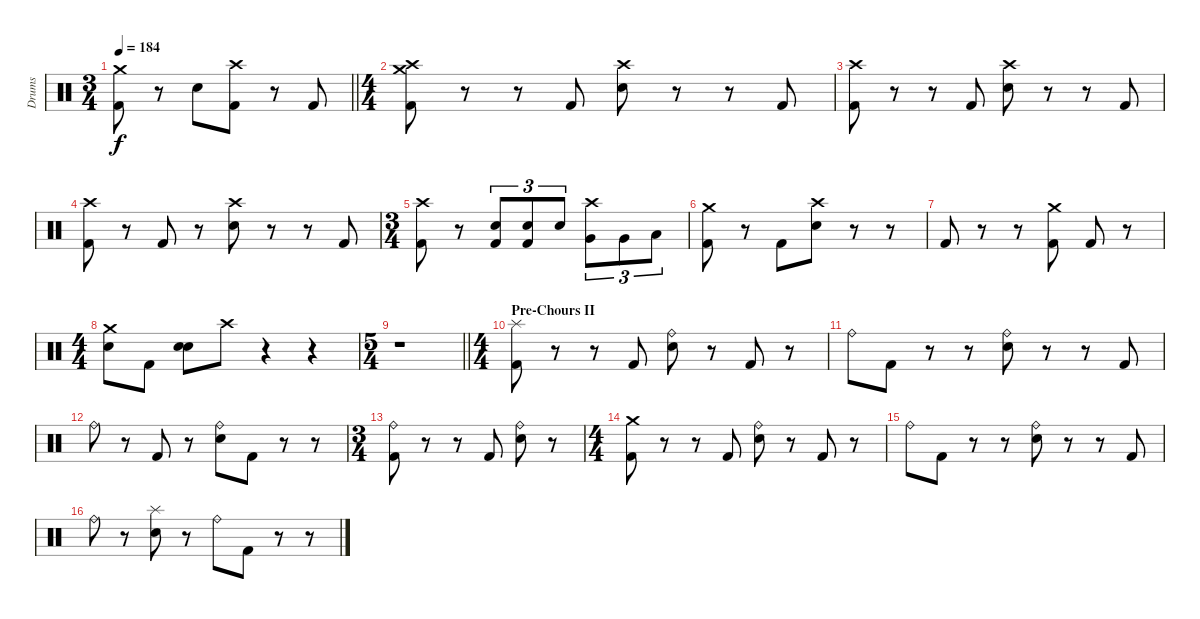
\track ("Drums" "Drums") {instrument percussion}
\staff {score}
\articulation defaults
\ts (3 4)
\tempo 184
\clef neutral
\barLineRight lightlight
\ks c
("Crash medium (hit)" "Kick (hit) 2").8{dy f} r.8 "Snare (hit) 2".8 ("Crash high (hit)" "Kick (hit) 2").8 r.8 "Kick (hit) 2".8 |
\ts (4 4)
\section ("" "")
("Crash medium (hit)" "Crash high (hit)" "Kick (hit) 2").8 r.8 r.8 "Kick (hit) 2".8 ("Crash high (hit)" "Snare (hit) 2").8 r.8 r.8 "Kick (hit) 2".8 |
("Crash high (hit)" "Kick (hit) 2").8 r.8 r.8 "Kick (hit) 2".8 ("Crash high (hit)" "Snare (hit) 2").8 r.8 r.8 "Kick (hit) 2".8 |
("Crash high (hit)" "Kick (hit) 2").8 r.8 "Kick (hit) 2".8 r.8 ("Crash high (hit)" "Snare (hit) 2").8 r.8 r.8 "Kick (hit) 2".8 |
\ts (3 4)
("Crash high (hit)" "Kick (hit) 2").8 r.8 ("Snare (hit) 2" "Kick (hit) 2").8{tu (3 2)} ("Snare (hit) 2" "Kick (hit) 2").8{tu (3 2)} "Snare (hit) 2".8{tu (3 2)} ("Crash high (hit)" "Very Low Tom (hit)").8{tu (3 2)} "Very Low Tom (hit)".8{tu (3 2)} "Low Floor Tom (hit)".8{tu (3 2)} |
("Crash medium (hit)" "Kick (hit) 2").8 r.8 "Kick (hit) 2".8 ("Crash high (hit)" "Snare (hit) 2").8 r.8 r.8 |
"Kick (hit) 2".8 r.8 r.8 ("Crash medium (hit)" "Kick (hit) 2").8 "Kick (hit) 2".8 r.8 |
\ts (4 4)
("Crash medium (hit)" "Snare (hit) 2").8 "Kick (hit) 2".8 ("Snare (hit) 2" "Snare (hit) 2").8 "Crash high (hit)".8 r.4 r.4 |
\ts (5 4)
\barLineRight lightlight
r.1 |
\ts (4 4)
\section ("" "Pre-Chours II")
("Splash (hit)" "Kick (hit) 2").8 r.8 r.8 "Kick (hit) 2".8 ("Ride (bell)" "Snare (hit) 2").8 r.8 "Kick (hit) 2".8 r.8 |
"Ride (bell)".8 "Kick (hit) 2".8 r.8 r.8 ("Ride (bell)" "Snare (hit) 2").8 r.8 r.8 "Kick (hit) 2".8 |
"Ride (bell)".8 r.8 "Kick (hit) 2".8 r.8 ("Ride (bell)" "Snare (hit) 2").8 "Kick (hit) 2".8 r.8 r.8 |
\ts (3 4)
("Ride (bell)" "Kick (hit) 2").8 r.8 r.8 "Kick (hit) 2".8 ("Ride (bell)" "Snare (hit) 2").8 r.8 |
\ts (4 4)
("Crash medium (hit)" "Kick (hit) 2").8 r.8 r.8 "Kick (hit) 2".8 ("Ride (bell)" "Snare (hit) 2").8 r.8 "Kick (hit) 2".8 r.8 |
"Ride (bell)".8 "Kick (hit) 2".8 r.8 r.8 ("Ride (bell)" "Snare (hit) 2").8 r.8 r.8 "Kick (hit) 2".8 |
"Ride (bell)".8 r.8 ("Splash (hit)" "Snare (hit) 2").8 r.8 "Ride (bell)".8 "Kick (hit) 2".8 r.8 r.8
